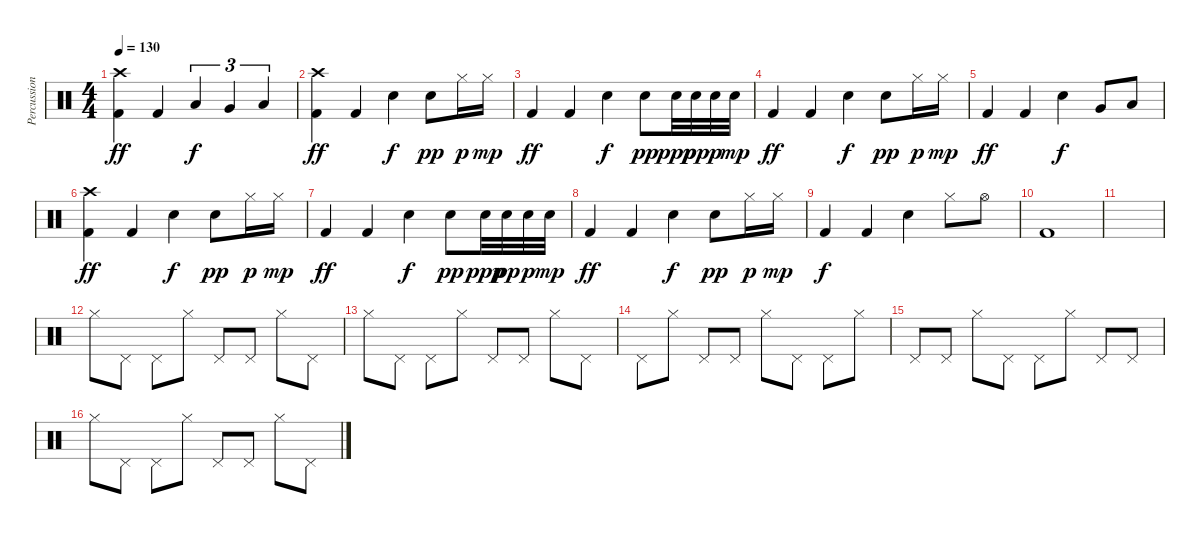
\track ("Percussions" "Percussion") {instrument percussion}
\staff {score}
\articulation defaults
\ts (4 4)
\tempo 130
\clef neutral
\ks c
("Crash high (hit)" "Kick (hit) 2").4{dy ff} "Kick (hit) 2".4 "Low Tom (hit)".4{tu (3 2) dy f} "Very Low Tom (hit)".4{tu (3 2)} "Low Floor Tom (hit)".4{tu (3 2)} |
("Crash high (hit)" "Kick (hit) 2").4{dy ff} "Kick (hit) 2".4 "Snare (hit) 2".4{dy f} "Snare (hit) 2".8{dy pp} "Hi-Hat (closed)".16{dy p} "Hi-Hat (closed)".16{dy mp} |
"Kick (hit) 2".4{dy ff} "Kick (hit) 2".4 "Snare (hit) 2".4{dy f} "Snare (hit) 2".8{dy pp} "Snare (hit) 2".32{dy ppp} "Snare (hit) 2".32{dy pp} "Snare (hit) 2".32{dy p} "Snare (hit) 2".32{dy mp} |
"Kick (hit) 2".4{dy ff} "Kick (hit) 2".4 "Snare (hit) 2".4{dy f} "Snare (hit) 2".8{dy pp} "Hi-Hat (closed)".16{dy p} "Hi-Hat (closed)".16{dy mp} |
"Kick (hit) 2".4{dy ff} "Kick (hit) 2".4 "Snare (hit) 2".4{dy f} "Very Low Tom (hit)".8 "Low Floor Tom (hit)".8 |
("Crash high (hit)" "Kick (hit) 2").4{dy ff} "Kick (hit) 2".4 "Snare (hit) 2".4{dy f} "Snare (hit) 2".8{dy pp} "Hi-Hat (closed)".16{dy p} "Hi-Hat (closed)".16{dy mp} |
"Kick (hit) 2".4{dy ff} "Kick (hit) 2".4 "Snare (hit) 2".4{dy f} "Snare (hit) 2".8{dy pp} "Snare (hit) 2".32{dy ppp} "Snare (hit) 2".32{dy pp} "Snare (hit) 2".32{dy p} "Snare (hit) 2".32{dy mp} |
"Kick (hit) 2".4{dy ff} "Kick (hit) 2".4 "Snare (hit) 2".4{dy f} "Snare (hit) 2".8{dy pp} "Hi-Hat (closed)".16{dy p} "Hi-Hat (closed)".16{dy mp} |
"Kick (hit) 2".4{dy f} "Kick (hit) 2".4 "Snare (hit) 2".4 "Hi-Hat (closed)".8 "Hi-Hat (open)".8 |
"Kick (hit) 2".1 |
|
"Hi-Hat (closed)".8 "Pedal Hi-Hat (hit)".8 "Pedal Hi-Hat (hit)".8 "Hi-Hat (closed)".8 "Pedal Hi-Hat (hit)".8 "Pedal Hi-Hat (hit)".8 "Hi-Hat (closed)".8 "Pedal Hi-Hat (hit)".8 |
"Hi-Hat (closed)".8 "Pedal Hi-Hat (hit)".8 "Pedal Hi-Hat (hit)".8 "Hi-Hat (closed)".8 "Pedal Hi-Hat (hit)".8 "Pedal Hi-Hat (hit)".8 "Hi-Hat (closed)".8 "Pedal Hi-Hat (hit)".8 |
"Pedal Hi-Hat (hit)".8 "Hi-Hat (closed)".8 "Pedal Hi-Hat (hit)".8 "Pedal Hi-Hat (hit)".8 "Hi-Hat (closed)".8 "Pedal Hi-Hat (hit)".8 "Pedal Hi-Hat (hit)".8 "Hi-Hat (closed)".8 |
"Pedal Hi-Hat (hit)".8 "Pedal Hi-Hat (hit)".8 "Hi-Hat (closed)".8 "Pedal Hi-Hat (hit)".8 "Pedal Hi-Hat (hit)".8 "Hi-Hat (closed)".8 "Pedal Hi-Hat (hit)".8 "Pedal Hi-Hat (hit)".8 |
"Hi-Hat (closed)".8 "Pedal Hi-Hat (hit)".8 "Pedal Hi-Hat (hit)".8 "Hi-Hat (closed)".8 "Pedal Hi-Hat (hit)".8 "Pedal Hi-Hat (hit)".8 "Hi-Hat (closed)".8 "Pedal Hi-Hat (hit)".8
